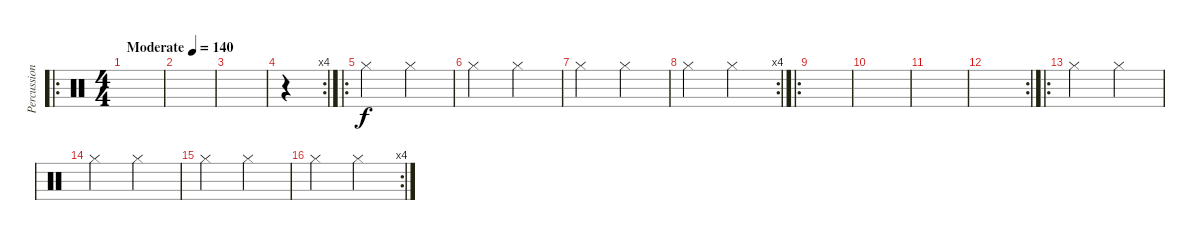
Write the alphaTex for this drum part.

\track ("Percussion" "Percussion") {instrument percussion}
\staff {score}
\articulation defaults
\ro
\ts (4 4)
\tempo (140 "Moderate")
\clef neutral
\ks c
|
|
|
\rc 4
r.4 |
\ro "Hi-Hat (closed)".2 "Hi-Hat (closed)".2
|
"Hi-Hat (closed)".2 "Hi-Hat (closed)".2 |
"Hi-Hat (closed)".2 "Hi-Hat (closed)".2 |
\rc 4 "Hi-Hat (closed)".2 "Hi-Hat (closed)".2
|
\ro
|
|
|
\rc 2
|
\ro "Hi-Hat (closed)".2 "Hi-Hat (closed)".2
|
"Hi-Hat (closed)".2 "Hi-Hat (closed)".2 |
"Hi-Hat (closed)".2 "Hi-Hat (closed)".2 |
\rc 4 "Hi-Hat (closed)".2 "Hi-Hat (closed)".2
